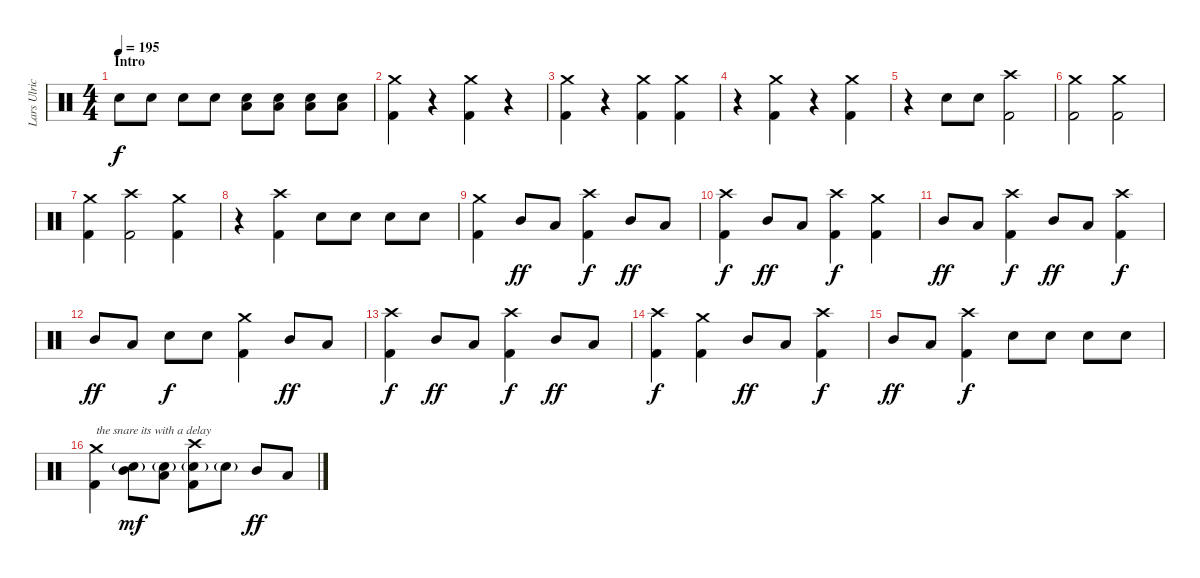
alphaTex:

\track ("Lars Ulrich" "Lars Ulric") {instrument percussion}
\staff {score}
\articulation defaults
\ts (4 4)
\section ("" "Intro")
\tempo 195
\clef neutral
\ks c "Electric Snare (hit)".8{dy f} "Electric Snare (hit)".8 "Electric Snare (hit)".8 "Electric Snare (hit)".8
("Low Floor Tom (hit)" "Electric Snare (hit)").8 ("Low Floor Tom (hit)" "Electric Snare (hit)").8 ("Low Floor Tom (hit)" "Electric Snare (hit)").8 ("Low Floor Tom (hit)" "Electric Snare (hit)").8 |
("Crash medium (hit)" "Kick (hit) 2").4 r.4{volume 0} ("Crash medium (hit)" "Kick (hit) 2").4{volume 14} r.4{volume 0} |
("Crash medium (hit)" "Kick (hit) 2").4{volume 14} r.4{volume 0} ("Crash medium (hit)" "Kick (hit) 2").4{volume 14} ("Crash medium (hit)" "Kick (hit) 2").4 |
r.4{volume 0} ("Crash medium (hit)" "Kick (hit) 2").4{volume 14} r.4{volume 0} ("Crash medium (hit)" "Kick (hit) 2").4{volume 14} |
r.4{volume 0} "Electric Snare (hit)".8{volume 14} "Electric Snare (hit)".8 ("Crash high (hit)" "Kick (hit) 2").2 |
("Crash medium (hit)" "Kick (hit) 2").2 ("Crash medium (hit)" "Kick (hit) 2").2 |
("Crash medium (hit)" "Kick (hit) 2").4 ("Crash high (hit)" "Kick (hit) 2").2 ("Crash medium (hit)" "Kick (hit) 2").4 |
r.4 ("Crash high (hit)" "Kick (hit) 2").4 "Electric Snare (hit)".8 "Electric Snare (hit)".8 "Electric Snare (hit)".8 "Electric Snare (hit)".8 |
("Crash medium (hit)" "Kick (hit) 2").4 "Mid Tom (hit)".8{dy ff} "Low Tom (hit)".8 ("Crash high (hit)" "Kick (hit) 2").4{dy f} "Mid Tom (hit)".8{dy ff} "Low Tom (hit)".8 |
("Crash high (hit)" "Kick (hit) 2").4{dy f} "Mid Tom (hit)".8{dy ff} "Low Tom (hit)".8 ("Crash high (hit)" "Kick (hit) 2").4{dy f} ("Crash medium (hit)" "Kick (hit) 2").4 |
"Mid Tom (hit)".8{dy ff} "Low Tom (hit)".8 ("Crash high (hit)" "Kick (hit) 2").4{dy f} "Mid Tom (hit)".8{dy ff} "Low Tom (hit)".8 ("Crash high (hit)" "Kick (hit) 2").4{dy f} |
"Mid Tom (hit)".8{dy ff} "Low Tom (hit)".8 "Electric Snare (hit)".8{dy f} "Electric Snare (hit)".8 ("Crash medium (hit)" "Kick (hit) 2").4 "Mid Tom (hit)".8{dy ff} "Low Tom (hit)".8 |
("Crash high (hit)" "Kick (hit) 2").4{dy f} "Mid Tom (hit)".8{dy ff} "Low Tom (hit)".8 ("Crash high (hit)" "Kick (hit) 2").4{dy f} "Mid Tom (hit)".8{dy ff} "Low Tom (hit)".8 |
("Crash high (hit)" "Kick (hit) 2").4{dy f} ("Crash medium (hit)" "Kick (hit) 2").4 "Mid Tom (hit)".8{dy ff} "Low Tom (hit)".8 ("Crash high (hit)" "Kick (hit) 2").4{dy f} |
"Mid Tom (hit)".8{dy ff} "Low Tom (hit)".8 ("Crash high (hit)" "Kick (hit) 2").4{dy f} "Electric Snare (hit)".8 "Electric Snare (hit)".8 "Electric Snare (hit)".8 "Electric Snare (hit)".8 |
("Crash medium (hit)" "Kick (hit) 2").4{txt "the snare its with a delay"} ("Mid Tom (hit)" "Electric Snare (hit)"{g}).8{dy mf} ("Low Tom (hit)" "Electric Snare (hit)"{g}).8 ("Crash high (hit)" "Electric Snare (hit)"{g} "Kick (hit) 2").8 "Electric Snare (hit)"{g}.8 "Mid Tom (hit)".8{dy ff} "Low Tom (hit)".8
